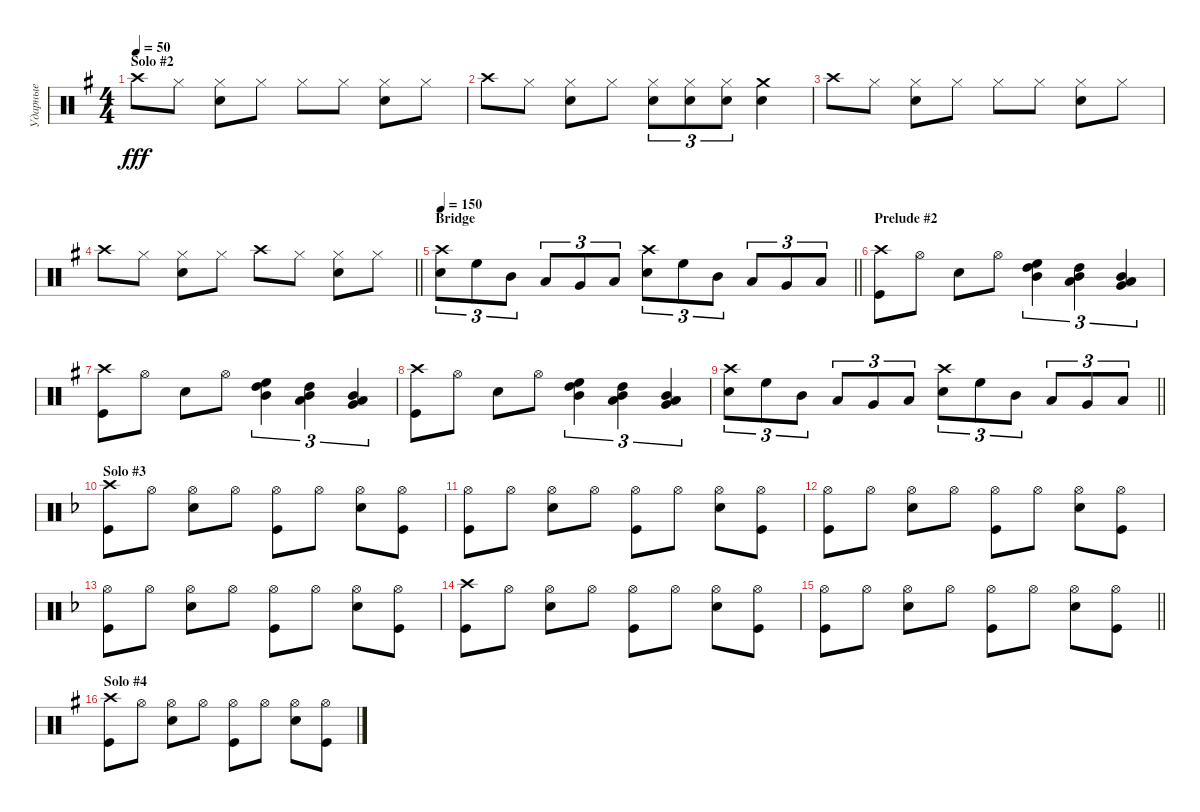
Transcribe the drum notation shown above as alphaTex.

\track ("Ударные" "Ударные") {instrument percussion}
\staff {score}
\articulation defaults
\ts (4 4)
\section ("" "Solo #2")
\tempo 50
\clef neutral
\ks eminor "Crash high (hit)".8{dy fff} "Hi-Hat (closed)".8
("Hi-Hat (closed)" "Snare (hit) 2").8 "Hi-Hat (closed)".8 "Hi-Hat (closed)".8 "Hi-Hat (closed)".8 ("Hi-Hat (closed)" "Snare (hit) 2").8 "Hi-Hat (closed)".8 |
"Crash high (hit)".8 "Hi-Hat (closed)".8 ("Hi-Hat (closed)" "Snare (hit) 2").8 "Hi-Hat (closed)".8 ("Hi-Hat (closed)" "Snare (hit) 2").8{tu (3 2)} ("Hi-Hat (closed)" "Snare (hit) 2").8{tu (3 2)} ("Hi-Hat (closed)" "Snare (hit) 2").8{tu (3 2)} ("Crash medium (hit)" "Snare (hit) 2").4 |
"Crash high (hit)".8 "Hi-Hat (closed)".8 ("Hi-Hat (closed)" "Snare (hit) 2").8 "Hi-Hat (closed)".8 "Hi-Hat (closed)".8 "Hi-Hat (closed)".8 ("Hi-Hat (closed)" "Snare (hit) 2").8 "Hi-Hat (closed)".8 |
\barLineRight lightlight "Crash high (hit)".8 "Hi-Hat (closed)".8
("Hi-Hat (closed)" "Snare (hit) 2").8 "Hi-Hat (closed)".8 "Crash high (hit)".8 "Hi-Hat (closed)".8 ("Snare (hit) 2" "Hi-Hat (closed)").8 "Hi-Hat (closed)".8 |
\section ("" "Bridge")
\tempo 150
\barLineRight lightlight
("Crash high (hit)" "Snare (hit) 2").8{tu (3 2)} "High Floor Tom (hit)".8{tu (3 2)} "Mid Tom (hit)".8{tu (3 2)} "Low Tom (hit)".8{tu (3 2)} "Very Low Tom (hit)".8{tu (3 2)} "Low Floor Tom (hit)".8{tu (3 2)} ("Crash high (hit)" "Snare (hit) 2").8{tu (3 2)} "High Floor Tom (hit)".8{tu (3 2)} "Mid Tom (hit)".8{tu (3 2)} "Low Tom (hit)".8{tu (3 2)} "Very Low Tom (hit)".8{tu (3 2)} "Low Floor Tom (hit)".8{tu (3 2)} |
\section ("" "Prelude #2")
("Crash high (hit)" "Kick (hit)").8 "Hi-Hat (open)".8 "Snare (hit) 2".8 "Hi-Hat (open)".8 ("High Floor Tom (hit)" "High Tom (hit)" "Mid Tom (hit)").4{tu (3 2)} ("High Tom (hit)" "Mid Tom (hit)" "Low Tom (hit)").4{tu (3 2)} ("Mid Tom (hit)" "Low Tom (hit)" "Very Low Tom (hit)").4{tu (3 2)} |
("Crash high (hit)" "Kick (hit)").8 "Hi-Hat (open)".8 "Snare (hit) 2".8 "Hi-Hat (open)".8 ("High Floor Tom (hit)" "High Tom (hit)" "Mid Tom (hit)").4{tu (3 2)} ("High Tom (hit)" "Mid Tom (hit)" "Low Tom (hit)").4{tu (3 2)} ("Mid Tom (hit)" "Low Tom (hit)" "Very Low Tom (hit)").4{tu (3 2)} |
("Crash high (hit)" "Kick (hit)").8 "Hi-Hat (open)".8 "Snare (hit) 2".8 "Hi-Hat (open)".8 ("High Floor Tom (hit)" "High Tom (hit)" "Mid Tom (hit)").4{tu (3 2)} ("High Tom (hit)" "Mid Tom (hit)" "Low Tom (hit)").4{tu (3 2)} ("Mid Tom (hit)" "Low Tom (hit)" "Very Low Tom (hit)").4{tu (3 2)} |
\barLineRight lightlight
("Crash high (hit)" "Snare (hit) 2").8{tu (3 2)} "High Floor Tom (hit)".8{tu (3 2)} "Mid Tom (hit)".8{tu (3 2)} "Low Tom (hit)".8{tu (3 2)} "Very Low Tom (hit)".8{tu (3 2)} "Low Floor Tom (hit)".8{tu (3 2)} ("Crash high (hit)" "Snare (hit) 2").8{tu (3 2)} "High Floor Tom (hit)".8{tu (3 2)} "Mid Tom (hit)".8{tu (3 2)} "Low Tom (hit)".8{tu (3 2)} "Very Low Tom (hit)".8{tu (3 2)} "Low Floor Tom (hit)".8{tu (3 2)} |
\section ("" "Solo #3")
\ks dminor
("Crash high (hit)" "Kick (hit)").8 "Hi-Hat (open)".8 ("Hi-Hat (open)" "Snare (hit) 2").8 "Hi-Hat (open)".8 ("Hi-Hat (open)" "Kick (hit)").8 "Hi-Hat (open)".8 ("Hi-Hat (open)" "Snare (hit) 2").8 ("Hi-Hat (open)" "Kick (hit)").8 |
("Hi-Hat (open)" "Kick (hit)").8 "Hi-Hat (open)".8 ("Hi-Hat (open)" "Snare (hit) 2").8 "Hi-Hat (open)".8 ("Hi-Hat (open)" "Kick (hit)").8 "Hi-Hat (open)".8 ("Hi-Hat (open)" "Snare (hit) 2").8 ("Hi-Hat (open)" "Kick (hit)").8 |
("Hi-Hat (open)" "Kick (hit)").8 "Hi-Hat (open)".8 ("Hi-Hat (open)" "Snare (hit) 2").8 "Hi-Hat (open)".8 ("Hi-Hat (open)" "Kick (hit)").8 "Hi-Hat (open)".8 ("Hi-Hat (open)" "Snare (hit) 2").8 ("Hi-Hat (open)" "Kick (hit)").8 |
("Hi-Hat (open)" "Kick (hit)").8 "Hi-Hat (open)".8 ("Hi-Hat (open)" "Snare (hit) 2").8 "Hi-Hat (open)".8 ("Hi-Hat (open)" "Kick (hit)").8 "Hi-Hat (open)".8 ("Hi-Hat (open)" "Snare (hit) 2").8 ("Hi-Hat (open)" "Kick (hit)").8 |
("Crash high (hit)" "Kick (hit)").8 "Hi-Hat (open)".8 ("Hi-Hat (open)" "Snare (hit) 2").8 "Hi-Hat (open)".8 ("Hi-Hat (open)" "Kick (hit)").8 "Hi-Hat (open)".8 ("Hi-Hat (open)" "Snare (hit) 2").8 ("Hi-Hat (open)" "Kick (hit)").8 |
\barLineRight lightlight
("Hi-Hat (open)" "Kick (hit)").8 "Hi-Hat (open)".8 ("Hi-Hat (open)" "Snare (hit) 2").8 "Hi-Hat (open)".8 ("Hi-Hat (open)" "Kick (hit)").8 "Hi-Hat (open)".8 ("Hi-Hat (open)" "Snare (hit) 2").8 ("Hi-Hat (open)" "Kick (hit)").8 |
\section ("" "Solo #4")
\ks eminor
("Crash high (hit)" "Kick (hit)").8 "Hi-Hat (open)".8 ("Hi-Hat (open)" "Snare (hit) 2").8 "Hi-Hat (open)".8 ("Hi-Hat (open)" "Kick (hit)").8 "Hi-Hat (open)".8 ("Hi-Hat (open)" "Snare (hit) 2").8 ("Hi-Hat (open)" "Kick (hit)").8
